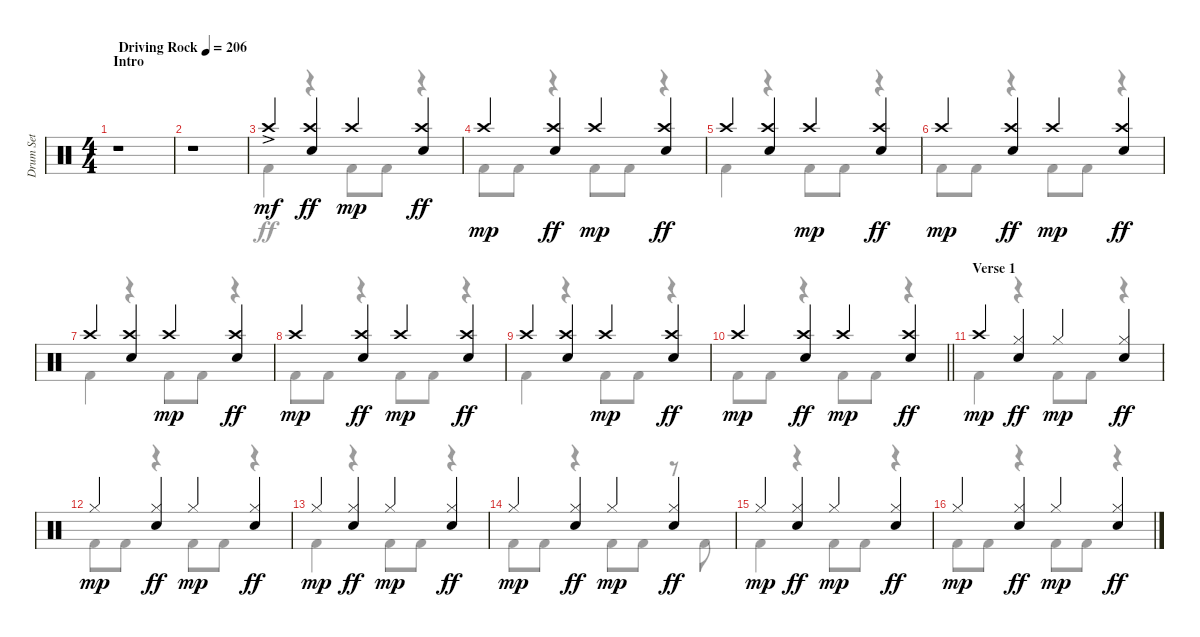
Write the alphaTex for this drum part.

\track ("Drum Set" "Drum Set") {instrument percussion}
\staff {score}
\articulation defaults
\voice
\ts (4 4)
\section ("" "Intro")
\tempo (206 "Driving Rock")
\clef neutral
\ks c
r.1{dy mf} |
r.1 |
"Crash high (hit)"{ac}.4 ("Crash high (hit)" "Electric Snare (hit)").4{dy ff} "Crash high (hit)".4{dy mp} ("Crash high (hit)" "Electric Snare (hit)").4{dy ff} |
"Crash high (hit)".4{dy mp} ("Crash high (hit)" "Electric Snare (hit)").4{dy ff} "Crash high (hit)".4{dy mp} ("Crash high (hit)" "Electric Snare (hit)").4{dy ff} |
"Crash high (hit)".4 ("Crash high (hit)" "Electric Snare (hit)").4 "Crash high (hit)".4{dy mp} ("Crash high (hit)" "Electric Snare (hit)").4{dy ff} |
"Crash high (hit)".4{dy mp} ("Crash high (hit)" "Electric Snare (hit)").4{dy ff} "Crash high (hit)".4{dy mp} ("Crash high (hit)" "Electric Snare (hit)").4{dy ff} |
"Crash high (hit)".4 ("Crash high (hit)" "Electric Snare (hit)").4 "Crash high (hit)".4{dy mp} ("Crash high (hit)" "Electric Snare (hit)").4{dy ff} |
"Crash high (hit)".4{dy mp} ("Crash high (hit)" "Electric Snare (hit)").4{dy ff} "Crash high (hit)".4{dy mp} ("Crash high (hit)" "Electric Snare (hit)").4{dy ff} |
"Crash high (hit)".4 ("Crash high (hit)" "Electric Snare (hit)").4 "Crash high (hit)".4{dy mp} ("Crash high (hit)" "Electric Snare (hit)").4{dy ff} |
\barLineRight lightlight "Crash high (hit)".4{dy mp}
("Crash high (hit)" "Electric Snare (hit)").4{dy ff} "Crash high (hit)".4{dy mp} ("Crash high (hit)" "Electric Snare (hit)").4{dy ff} |
\section ("" "Verse 1")
"Crash high (hit)".4{dy mp} ("Hi-Hat (closed)" "Electric Snare (hit)").4{dy ff} "Hi-Hat (closed)".4{dy mp} ("Hi-Hat (closed)" "Electric Snare (hit)").4{dy ff} |
"Hi-Hat (closed)".4{dy mp} ("Hi-Hat (closed)" "Electric Snare (hit)").4{dy ff} "Hi-Hat (closed)".4{dy mp} ("Hi-Hat (closed)" "Electric Snare (hit)").4{dy ff} |
"Hi-Hat (closed)".4{dy mp} ("Hi-Hat (closed)" "Electric Snare (hit)").4{dy ff} "Hi-Hat (closed)".4{dy mp} ("Hi-Hat (closed)" "Electric Snare (hit)").4{dy ff} |
"Hi-Hat (closed)".4{dy mp} ("Hi-Hat (closed)" "Electric Snare (hit)").4{dy ff} "Hi-Hat (closed)".4{dy mp} ("Hi-Hat (closed)" "Electric Snare (hit)").4{dy ff} |
"Hi-Hat (closed)".4{dy mp} ("Hi-Hat (closed)" "Electric Snare (hit)").4{dy ff} "Hi-Hat (closed)".4{dy mp} ("Hi-Hat (closed)" "Electric Snare (hit)").4{dy ff} |
"Hi-Hat (closed)".4{dy mp} ("Hi-Hat (closed)" "Electric Snare (hit)").4{dy ff} "Hi-Hat (closed)".4{dy mp} ("Hi-Hat (closed)" "Electric Snare (hit)").4{dy ff}
\voice
\clef neutral
\ottava regular
\simile none
\ks c
|
|
"Kick (hit) 2".4 r.4 "Kick (hit) 2".8 "Kick (hit) 2".8 r.4 |
"Kick (hit) 2".8 "Kick (hit) 2".8 r.4 "Kick (hit) 2".8 "Kick (hit) 2".8 r.4 |
"Kick (hit) 2".4 r.4 "Kick (hit) 2".8 "Kick (hit) 2".8 r.4 |
"Kick (hit) 2".8 "Kick (hit) 2".8 r.4 "Kick (hit) 2".8 "Kick (hit) 2".8 r.4 |
"Kick (hit) 2".4 r.4 "Kick (hit) 2".8 "Kick (hit) 2".8 r.4 |
"Kick (hit) 2".8 "Kick (hit) 2".8 r.4 "Kick (hit) 2".8 "Kick (hit) 2".8 r.4 |
"Kick (hit) 2".4 r.4 "Kick (hit) 2".8 "Kick (hit) 2".8 r.4 |
\barLineRight lightlight "Kick (hit) 2".8 "Kick (hit) 2".8
r.4 "Kick (hit) 2".8 "Kick (hit) 2".8 r.4 |
"Kick (hit) 2".4 r.4 "Kick (hit) 2".8 "Kick (hit) 2".8 r.4 |
"Kick (hit) 2".8 "Kick (hit) 2".8 r.4 "Kick (hit) 2".8 "Kick (hit) 2".8 r.4 |
"Kick (hit) 2".4 r.4 "Kick (hit) 2".8 "Kick (hit) 2".8 r.4 |
"Kick (hit) 2".8 "Kick (hit) 2".8 r.4 "Kick (hit) 2".8 "Kick (hit) 2".8 r.8 "Kick (hit) 2".8 |
"Kick (hit) 2".4 r.4 "Kick (hit) 2".8 "Kick (hit) 2".8 r.4 |
"Kick (hit) 2".8 "Kick (hit) 2".8 r.4 "Kick (hit) 2".8 "Kick (hit) 2".8 r.4
